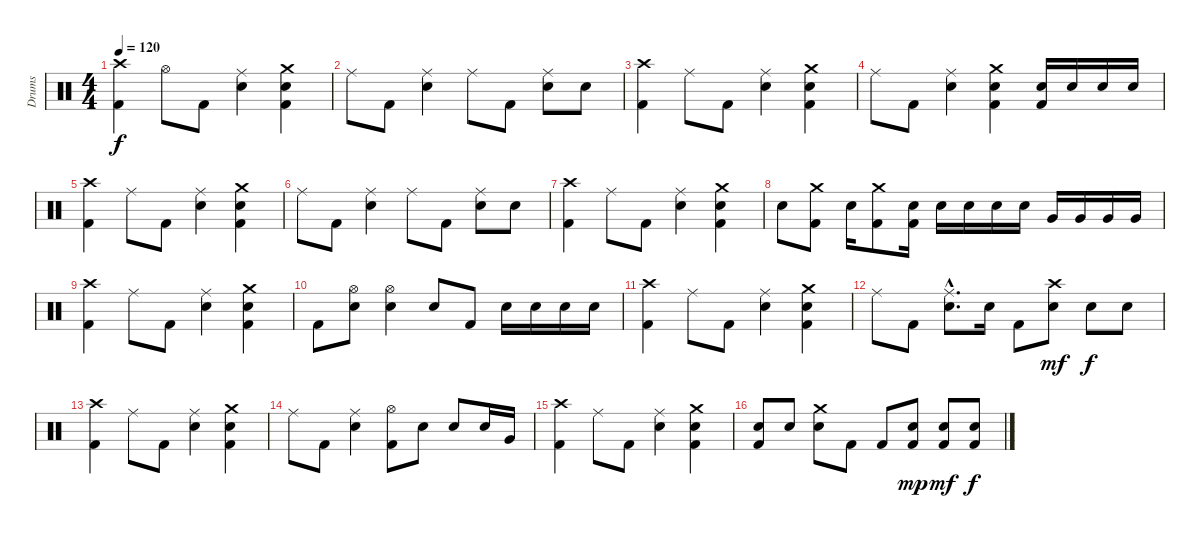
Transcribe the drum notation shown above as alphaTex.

\track ("Drums" "Drums") {instrument percussion}
\staff {score}
\articulation defaults
\ts (4 4)
\tempo 120
\clef neutral
\ks c
("Kick (hit) 2" "Crash high (hit)").4{dy f} "Hi-Hat (open)".8 "Kick (hit) 2".8 ("Snare (hit) 2" "Ride (middle)").4 ("Kick (hit) 2" "Snare (hit) 2" "Crash medium (hit)").4 |
"Ride (middle)".8 "Kick (hit) 2".8 ("Snare (hit) 2" "Ride (middle)").4 "Ride (middle)".8 "Kick (hit) 2".8 ("Snare (hit) 2" "Ride (middle)").8 "Snare (hit) 2".8 |
("Kick (hit) 2" "Crash high (hit)").4 "Ride (middle)".8 "Kick (hit) 2".8 ("Snare (hit) 2" "Ride (middle)").4 ("Kick (hit) 2" "Snare (hit) 2" "Crash medium (hit)").4 |
"Ride (middle)".8 "Kick (hit) 2".8 ("Snare (hit) 2" "Ride (middle)").4 ("Kick (hit) 2" "Snare (hit) 2" "Crash medium (hit)").4 ("Kick (hit) 2" "Snare (hit) 2").16 "Snare (hit) 2".16 "Snare (hit) 2".16 "Snare (hit) 2".16 |
("Kick (hit) 2" "Crash high (hit)").4 "Ride (middle)".8 "Kick (hit) 2".8 ("Snare (hit) 2" "Ride (middle)").4 ("Kick (hit) 2" "Snare (hit) 2" "Crash medium (hit)").4 |
"Ride (middle)".8 "Kick (hit) 2".8 ("Snare (hit) 2" "Ride (middle)").4 "Ride (middle)".8 "Kick (hit) 2".8 ("Snare (hit) 2" "Ride (middle)").8 "Snare (hit) 2".8 |
("Kick (hit) 2" "Crash high (hit)").4 "Ride (middle)".8 "Kick (hit) 2".8 ("Snare (hit) 2" "Ride (middle)").4 ("Kick (hit) 2" "Snare (hit) 2" "Crash medium (hit)").4 |
"Snare (hit) 2".8 ("Kick (hit) 2" "Crash medium (hit)").8 "Snare (hit) 2".16 ("Kick (hit) 2" "Crash medium (hit)").8 ("Kick (hit) 2" "Snare (hit) 2").16 "Snare (hit) 2".16 "Snare (hit) 2".16 "Snare (hit) 2".16 "Snare (hit) 2".16 "Very Low Tom (hit)".16 "Very Low Tom (hit)".16 "Very Low Tom (hit)".16 "Very Low Tom (hit)".16 |
("Kick (hit) 2" "Crash high (hit)").4 "Ride (middle)".8 "Kick (hit) 2".8 ("Snare (hit) 2" "Ride (middle)").4 ("Kick (hit) 2" "Snare (hit) 2" "Crash medium (hit)").4 |
"Kick (hit) 2".8 ("Snare (hit) 2" "Hi-Hat (open)").8 ("Snare (hit) 2" "Hi-Hat (open)").4 "Snare (hit) 2".8 "Kick (hit) 2".8 "Snare (hit) 2".16 "Snare (hit) 2".16 "Snare (hit) 2".16 "Snare (hit) 2".16 |
("Kick (hit) 2" "Crash high (hit)").4 "Ride (middle)".8 "Kick (hit) 2".8 ("Snare (hit) 2" "Ride (middle)").4 ("Kick (hit) 2" "Snare (hit) 2" "Crash medium (hit)").4 |
"Ride (middle)".8 "Kick (hit) 2".8 ("Snare (hit) 2"{hac} "Ride (middle)"{hac}).8{d} "Snare (hit) 2".16 "Kick (hit) 2".8 ("Snare (hit) 2" "Crash high (hit)").8{dy mf} "Snare (hit) 2".8{dy f} "Snare (hit) 2".8 |
("Kick (hit) 2" "Crash high (hit)").4 "Ride (middle)".8 "Kick (hit) 2".8 ("Snare (hit) 2" "Ride (middle)").4 ("Kick (hit) 2" "Snare (hit) 2" "Crash medium (hit)").4 |
"Ride (middle)".8 "Kick (hit) 2".8 ("Snare (hit) 2" "Ride (middle)").4 ("Kick (hit) 2" "Hi-Hat (open)").8 "Snare (hit) 2".8 "Snare (hit) 2".8 "Snare (hit) 2".16 "Very Low Tom (hit)".16 |
("Kick (hit) 2" "Crash high (hit)").4 "Ride (middle)".8 "Kick (hit) 2".8 ("Snare (hit) 2" "Ride (middle)").4 ("Kick (hit) 2" "Snare (hit) 2" "Crash medium (hit)").4 |
("Kick (hit) 2" "Snare (hit) 2").8 "Snare (hit) 2".8 ("Snare (hit) 2" "Crash medium (hit)").8 "Kick (hit) 2".8 "Kick (hit) 2".8 ("Kick (hit) 2" "Snare (hit) 2").8{dy mp} ("Kick (hit) 2" "Snare (hit) 2").8{dy mf} ("Kick (hit) 2" "Snare (hit) 2").8{dy f}
